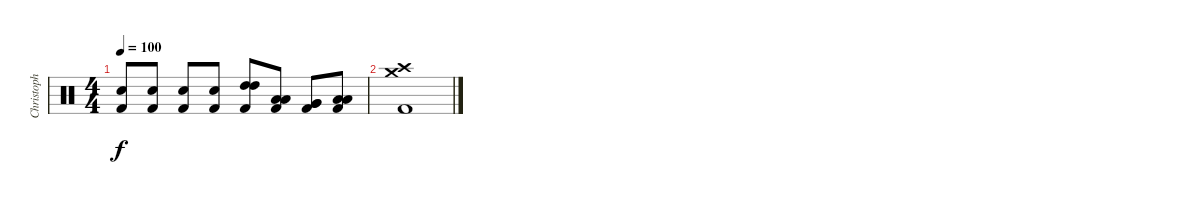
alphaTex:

\track ("Christoph Schneider - Drums" "Christoph ") {instrument percussion}
\staff {score}
\articulation defaults
\ts (4 4)
\tempo 100
\clef neutral
\ks c
("Electric Snare (hit)" "Kick (hit) 2").8{dy f} ("Electric Snare (hit)" "Kick (hit) 2").8 ("Electric Snare (hit)" "Kick (hit) 2").8 ("Electric Snare (hit)" "Kick (hit) 2").8 ("High Tom (hit)" "High Tom (hit)" "Kick (hit) 2").8 ("Low Tom (hit)" "Low Tom (hit)" "Kick (hit) 2").8 ("Very Low Tom (hit)" "Very Low Tom (hit)" "Kick (hit) 2").8 ("Low Floor Tom (hit)" "Low Floor Tom (hit)" "Kick (hit) 2").8 |
("Crash medium (hit)" "Crash high (hit)" "Kick (hit) 2").1
